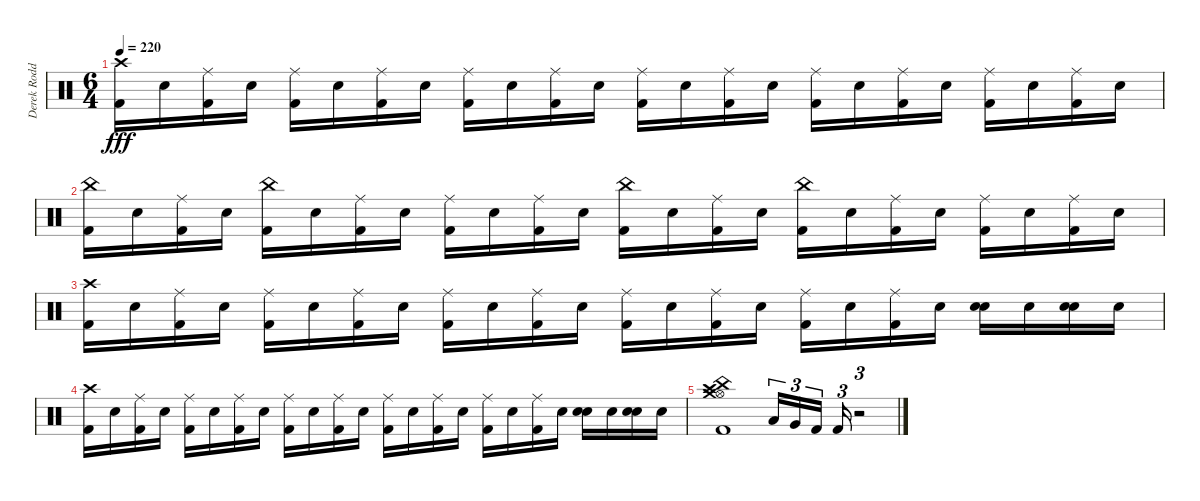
\track ("Derek Roddy" "Derek Rodd") {instrument percussion}
\staff {score}
\articulation defaults
\ts (6 4)
\tempo 220
\clef neutral
\ks c
("Crash high (hit)" "Kick (hit) 2").16{dy fff} "Snare (hit) 2".16 ("Ride (middle)" "Kick (hit) 2").16 "Snare (hit) 2".16 ("Ride (middle)" "Kick (hit) 2").16 "Snare (hit) 2".16 ("Ride (middle)" "Kick (hit) 2").16 "Snare (hit) 2".16 ("Ride (middle)" "Kick (hit) 2").16 "Snare (hit) 2".16 ("Ride (middle)" "Kick (hit) 2").16 "Snare (hit) 2".16 ("Ride (middle)" "Kick (hit) 2").16 "Snare (hit) 2".16 ("Ride (middle)" "Kick (hit) 2").16 "Snare (hit) 2".16 ("Ride (middle)" "Kick (hit) 2").16 "Snare (hit) 2".16 ("Ride (middle)" "Kick (hit) 2").16 "Snare (hit) 2".16 ("Ride (middle)" "Kick (hit) 2").16 "Snare (hit) 2".16 ("Ride (middle)" "Kick (hit) 2").16 "Snare (hit) 2".16 |
("China (hit)" "Kick (hit) 2").16 "Snare (hit) 2".16 ("Ride (middle)" "Kick (hit) 2").16 "Snare (hit) 2".16 ("China (hit)" "Kick (hit) 2").16 "Snare (hit) 2".16 ("Ride (middle)" "Kick (hit) 2").16 "Snare (hit) 2".16 ("Ride (middle)" "Kick (hit) 2").16 "Snare (hit) 2".16 ("Ride (middle)" "Kick (hit) 2").16 "Snare (hit) 2".16 ("China (hit)" "Kick (hit) 2").16 "Snare (hit) 2".16 ("Ride (middle)" "Kick (hit) 2").16 "Snare (hit) 2".16 ("China (hit)" "Kick (hit) 2").16 "Snare (hit) 2".16 ("Ride (middle)" "Kick (hit) 2").16 "Snare (hit) 2".16 ("Ride (middle)" "Kick (hit) 2").16 "Snare (hit) 2".16 ("Ride (middle)" "Kick (hit) 2").16 "Snare (hit) 2".16 |
("Crash high (hit)" "Kick (hit) 2").16 "Snare (hit) 2".16 ("Ride (middle)" "Kick (hit) 2").16 "Snare (hit) 2".16 ("Ride (middle)" "Kick (hit) 2").16 "Snare (hit) 2".16 ("Ride (middle)" "Kick (hit) 2").16 "Snare (hit) 2".16 ("Ride (middle)" "Kick (hit) 2").16 "Snare (hit) 2".16 ("Ride (middle)" "Kick (hit) 2").16 "Snare (hit) 2".16 ("Ride (middle)" "Kick (hit) 2").16 "Snare (hit) 2".16 ("Ride (middle)" "Kick (hit) 2").16 "Snare (hit) 2".16 ("Ride (middle)" "Kick (hit) 2").16 "Snare (hit) 2".16 ("Ride (middle)" "Kick (hit) 2").16 "Snare (hit) 2".16 ("Snare (hit)" "Snare (hit) 2").16 "Snare (hit) 2".16 ("Snare (hit)" "Snare (hit) 2").16 "Snare (hit) 2".16 |
("Crash high (hit)" "Kick (hit) 2").16 "Snare (hit) 2".16 ("Ride (middle)" "Kick (hit) 2").16 "Snare (hit) 2".16 ("Ride (middle)" "Kick (hit) 2").16 "Snare (hit) 2".16 ("Ride (middle)" "Kick (hit) 2").16 "Snare (hit) 2".16 ("Ride (middle)" "Kick (hit) 2").16 "Snare (hit) 2".16 ("Ride (middle)" "Kick (hit) 2").16 "Snare (hit) 2".16 ("Ride (middle)" "Kick (hit) 2").16 "Snare (hit) 2".16 ("Ride (middle)" "Kick (hit) 2").16 "Snare (hit) 2".16 ("Ride (middle)" "Kick (hit) 2").16 "Snare (hit) 2".16 ("Ride (middle)" "Kick (hit) 2").16 "Snare (hit) 2".16 ("Snare (hit)" "Snare (hit) 2").16 "Snare (hit) 2".16 ("Snare (hit)" "Snare (hit) 2").16 "Snare (hit) 2".16 |
("Hi-Hat (open)" "Crash medium (hit)" "China (hit)" "Crash high (hit)" "Kick (hit) 2").1 "Low Tom (hit)".16{tu (3 2)} "Very Low Tom (hit)".16{tu (3 2)} "Kick (hit) 2".16{tu (3 2)} "Kick (hit) 2".16{tu (3 2)} r.2{tu (3 2)}
